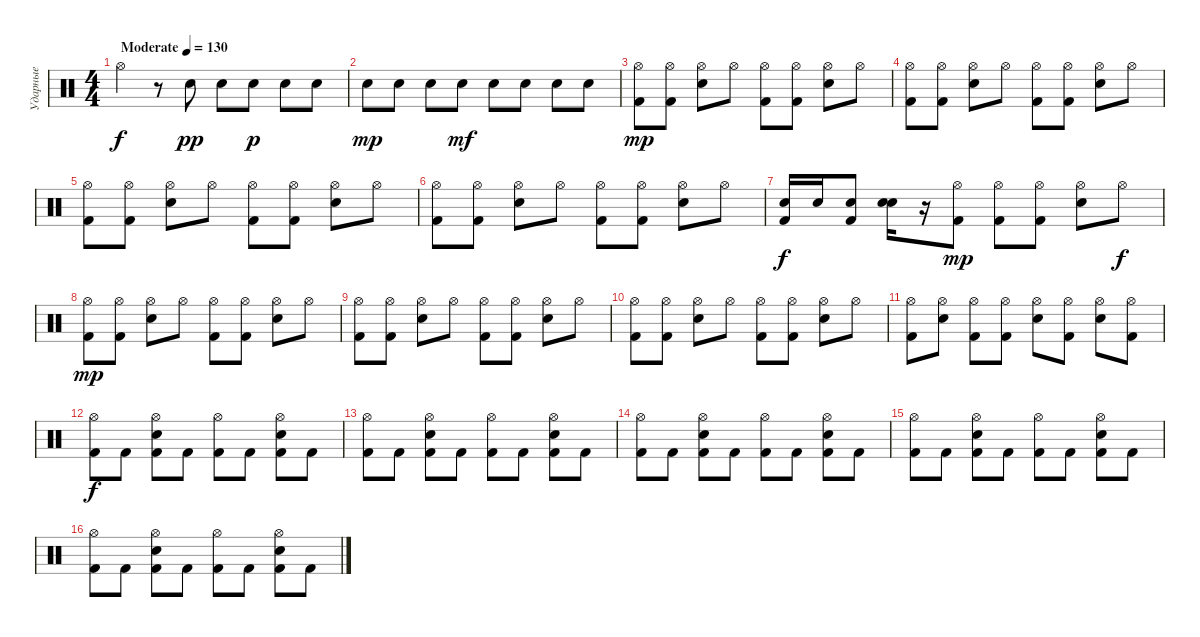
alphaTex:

\track ("Ударные" "Ударные") {instrument percussion}
\staff {score}
\articulation defaults
\ts (4 4)
\tempo (130 "Moderate")
\clef neutral
\ks c "Hi-Hat (open)".4{dy f}
r.8 "Electric Snare (hit)".8{dy pp} "Electric Snare (hit)".8 "Electric Snare (hit)".8{dy p} "Electric Snare (hit)".8 "Electric Snare (hit)".8 |
"Electric Snare (hit)".8{dy mp} "Electric Snare (hit)".8 "Electric Snare (hit)".8 "Electric Snare (hit)".8{dy mf} "Electric Snare (hit)".8 "Electric Snare (hit)".8 "Electric Snare (hit)".8 "Electric Snare (hit)".8 |
("Hi-Hat (open)" "Kick (hit) 2").8{dy mp} ("Hi-Hat (open)" "Kick (hit) 2").8 ("Hi-Hat (open)" "Electric Snare (hit)").8 "Hi-Hat (open)".8 ("Hi-Hat (open)" "Kick (hit) 2").8 ("Hi-Hat (open)" "Kick (hit) 2").8 ("Hi-Hat (open)" "Electric Snare (hit)").8 "Hi-Hat (open)".8 |
("Hi-Hat (open)" "Kick (hit) 2").8 ("Hi-Hat (open)" "Kick (hit) 2").8 ("Hi-Hat (open)" "Electric Snare (hit)").8 "Hi-Hat (open)".8 ("Hi-Hat (open)" "Kick (hit) 2").8 ("Hi-Hat (open)" "Kick (hit) 2").8 ("Hi-Hat (open)" "Electric Snare (hit)").8 "Hi-Hat (open)".8 |
("Hi-Hat (open)" "Kick (hit) 2").8 ("Hi-Hat (open)" "Kick (hit) 2").8 ("Hi-Hat (open)" "Electric Snare (hit)").8 "Hi-Hat (open)".8 ("Hi-Hat (open)" "Kick (hit) 2").8 ("Hi-Hat (open)" "Kick (hit) 2").8 ("Hi-Hat (open)" "Electric Snare (hit)").8 "Hi-Hat (open)".8 |
("Hi-Hat (open)" "Kick (hit) 2").8 ("Hi-Hat (open)" "Kick (hit) 2").8 ("Hi-Hat (open)" "Electric Snare (hit)").8 "Hi-Hat (open)".8 ("Hi-Hat (open)" "Kick (hit) 2").8 ("Hi-Hat (open)" "Kick (hit) 2").8 ("Hi-Hat (open)" "Electric Snare (hit)").8 "Hi-Hat (open)".8 |
("Electric Snare (hit)" "Kick (hit) 2").16{dy f} "Electric Snare (hit)".16 ("Electric Snare (hit)" "Kick (hit) 2").8 ("Electric Snare (hit)" "Electric Snare (hit)").16 r.16 ("Kick (hit) 2" "Hi-Hat (open)").8{dy mp} ("Kick (hit) 2" "Hi-Hat (open)").8 ("Kick (hit) 2" "Hi-Hat (open)").8 ("Electric Snare (hit)" "Hi-Hat (open)").8 "Hi-Hat (open)".8{dy f} |
("Hi-Hat (open)" "Kick (hit) 2").8{dy mp} ("Hi-Hat (open)" "Kick (hit) 2").8 ("Hi-Hat (open)" "Electric Snare (hit)").8 "Hi-Hat (open)".8 ("Hi-Hat (open)" "Kick (hit) 2").8 ("Hi-Hat (open)" "Kick (hit) 2").8 ("Hi-Hat (open)" "Electric Snare (hit)").8 "Hi-Hat (open)".8 |
("Hi-Hat (open)" "Kick (hit) 2").8 ("Hi-Hat (open)" "Kick (hit) 2").8 ("Hi-Hat (open)" "Electric Snare (hit)").8 "Hi-Hat (open)".8 ("Hi-Hat (open)" "Kick (hit) 2").8 ("Hi-Hat (open)" "Kick (hit) 2").8 ("Hi-Hat (open)" "Electric Snare (hit)").8 "Hi-Hat (open)".8 |
("Hi-Hat (open)" "Kick (hit) 2").8 ("Hi-Hat (open)" "Kick (hit) 2").8 ("Hi-Hat (open)" "Electric Snare (hit)").8 "Hi-Hat (open)".8 ("Hi-Hat (open)" "Kick (hit) 2").8 ("Hi-Hat (open)" "Kick (hit) 2").8 ("Hi-Hat (open)" "Electric Snare (hit)").8 "Hi-Hat (open)".8 |
("Hi-Hat (open)" "Kick (hit) 2").8 ("Hi-Hat (open)" "Electric Snare (hit)").8 ("Hi-Hat (open)" "Kick (hit) 2").8 ("Hi-Hat (open)" "Kick (hit) 2").8 ("Hi-Hat (open)" "Electric Snare (hit)").8 ("Hi-Hat (open)" "Kick (hit) 2").8 ("Hi-Hat (open)" "Electric Snare (hit)").8 ("Hi-Hat (open)" "Kick (hit) 2").8 |
("Hi-Hat (open)" "Kick (hit) 2").8{dy f} "Kick (hit) 2".8 ("Hi-Hat (open)" "Kick (hit) 2" "Electric Snare (hit)").8 "Kick (hit) 2".8 ("Hi-Hat (open)" "Kick (hit) 2").8 "Kick (hit) 2".8 ("Hi-Hat (open)" "Kick (hit) 2" "Electric Snare (hit)").8 "Kick (hit) 2".8 |
("Hi-Hat (open)" "Kick (hit) 2").8 "Kick (hit) 2".8 ("Hi-Hat (open)" "Kick (hit) 2" "Electric Snare (hit)").8 "Kick (hit) 2".8 ("Hi-Hat (open)" "Kick (hit) 2").8 "Kick (hit) 2".8 ("Hi-Hat (open)" "Kick (hit) 2" "Electric Snare (hit)").8 "Kick (hit) 2".8 |
("Hi-Hat (open)" "Kick (hit) 2").8 "Kick (hit) 2".8 ("Hi-Hat (open)" "Kick (hit) 2" "Electric Snare (hit)").8 "Kick (hit) 2".8 ("Hi-Hat (open)" "Kick (hit) 2").8 "Kick (hit) 2".8 ("Hi-Hat (open)" "Kick (hit) 2" "Electric Snare (hit)").8 "Kick (hit) 2".8 |
("Hi-Hat (open)" "Kick (hit) 2").8 "Kick (hit) 2".8 ("Hi-Hat (open)" "Kick (hit) 2" "Electric Snare (hit)").8 "Kick (hit) 2".8 ("Hi-Hat (open)" "Kick (hit) 2").8 "Kick (hit) 2".8 ("Hi-Hat (open)" "Kick (hit) 2" "Electric Snare (hit)").8 "Kick (hit) 2".8 |
("Hi-Hat (open)" "Kick (hit) 2").8 "Kick (hit) 2".8 ("Hi-Hat (open)" "Kick (hit) 2" "Electric Snare (hit)").8 "Kick (hit) 2".8 ("Hi-Hat (open)" "Kick (hit) 2").8 "Kick (hit) 2".8 ("Hi-Hat (open)" "Kick (hit) 2" "Electric Snare (hit)").8 "Kick (hit) 2".8
